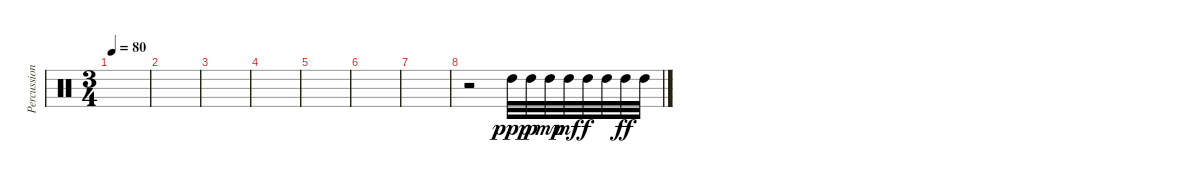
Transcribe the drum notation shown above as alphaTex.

\track ("Percussion" "Percussion") {instrument percussion}
\staff {score}
\articulation defaults
\ts (3 4)
\tempo 80
\clef neutral
\ks c
|
|
|
|
|
|
|
r.2 "High Tom (hit)".32{dy ppp} "High Tom (hit)".32{dy p} "High Tom (hit)".32{dy mp} "High Tom (hit)".32{dy mf} "High Tom (hit)".32{dy f} "High Tom (hit)".32 "High Tom (hit)".32{dy ff} "High Tom (hit)".32
